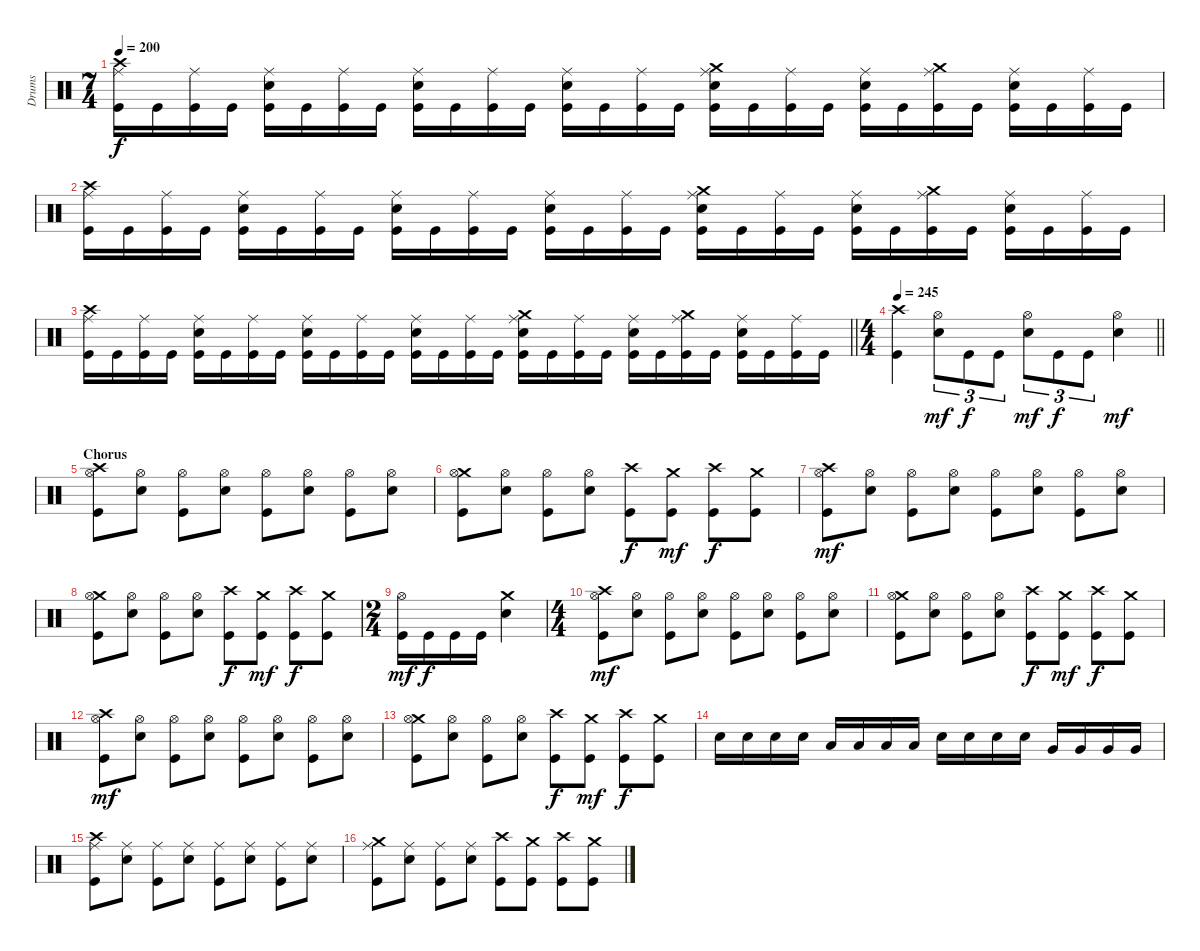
\track ("Drums" "Drums") {instrument percussion}
\staff {score}
\articulation defaults
\ts (7 4)
\tempo 200
\clef neutral
\ks c
("Crash high (hit)" "Ride (middle)" "Kick (hit)").16{dy f} "Kick (hit)".16 ("Ride (middle)" "Kick (hit)").16 "Kick (hit)".16 ("Ride (middle)" "Electric Snare (hit)" "Kick (hit)").16 "Kick (hit)".16 ("Ride (middle)" "Kick (hit)").16 "Kick (hit)".16 ("Ride (middle)" "Electric Snare (hit)" "Kick (hit)").16 "Kick (hit)".16 ("Ride (middle)" "Kick (hit)").16 "Kick (hit)".16 ("Ride (middle)" "Electric Snare (hit)" "Kick (hit)").16 "Kick (hit)".16 ("Ride (middle)" "Kick (hit)").16 "Kick (hit)".16 ("Crash medium (hit)" "Ride (middle)" "Electric Snare (hit)" "Kick (hit)").16 "Kick (hit)".16 ("Ride (middle)" "Kick (hit)").16 "Kick (hit)".16 ("Ride (middle)" "Electric Snare (hit)" "Kick (hit)").16 "Kick (hit)".16 ("Crash medium (hit)" "Ride (middle)" "Kick (hit)").16 "Kick (hit)".16 ("Ride (middle)" "Electric Snare (hit)" "Kick (hit)").16 "Kick (hit)".16 ("Ride (middle)" "Kick (hit)").16 "Kick (hit)".16 |
("Crash high (hit)" "Ride (middle)" "Kick (hit)").16 "Kick (hit)".16 ("Ride (middle)" "Kick (hit)").16 "Kick (hit)".16 ("Ride (middle)" "Electric Snare (hit)" "Kick (hit)").16 "Kick (hit)".16 ("Ride (middle)" "Kick (hit)").16 "Kick (hit)".16 ("Ride (middle)" "Electric Snare (hit)" "Kick (hit)").16 "Kick (hit)".16 ("Ride (middle)" "Kick (hit)").16 "Kick (hit)".16 ("Ride (middle)" "Electric Snare (hit)" "Kick (hit)").16 "Kick (hit)".16 ("Ride (middle)" "Kick (hit)").16 "Kick (hit)".16 ("Crash medium (hit)" "Ride (middle)" "Electric Snare (hit)" "Kick (hit)").16 "Kick (hit)".16 ("Ride (middle)" "Kick (hit)").16 "Kick (hit)".16 ("Ride (middle)" "Electric Snare (hit)" "Kick (hit)").16 "Kick (hit)".16 ("Crash medium (hit)" "Ride (middle)" "Kick (hit)").16 "Kick (hit)".16 ("Ride (middle)" "Electric Snare (hit)" "Kick (hit)").16 "Kick (hit)".16 ("Ride (middle)" "Kick (hit)").16 "Kick (hit)".16 |
\barLineRight lightlight
("Crash high (hit)" "Ride (middle)" "Kick (hit)").16 "Kick (hit)".16 ("Ride (middle)" "Kick (hit)").16 "Kick (hit)".16 ("Ride (middle)" "Electric Snare (hit)" "Kick (hit)").16 "Kick (hit)".16 ("Ride (middle)" "Kick (hit)").16 "Kick (hit)".16 ("Ride (middle)" "Electric Snare (hit)" "Kick (hit)").16 "Kick (hit)".16 ("Ride (middle)" "Kick (hit)").16 "Kick (hit)".16 ("Ride (middle)" "Electric Snare (hit)" "Kick (hit)").16 "Kick (hit)".16 ("Ride (middle)" "Kick (hit)").16 "Kick (hit)".16 ("Crash medium (hit)" "Ride (middle)" "Electric Snare (hit)" "Kick (hit)").16 "Kick (hit)".16 ("Ride (middle)" "Kick (hit)").16 "Kick (hit)".16 ("Ride (middle)" "Electric Snare (hit)" "Kick (hit)").16 "Kick (hit)".16 ("Crash medium (hit)" "Ride (middle)" "Kick (hit)").16 "Kick (hit)".16 ("Ride (middle)" "Electric Snare (hit)" "Kick (hit)").16 "Kick (hit)".16 ("Ride (middle)" "Kick (hit)").16 "Kick (hit)".16 |
\ts (4 4)
\section ("" "")
\tempo 245
\barLineRight lightlight
("Crash high (hit)" "Kick (hit)").4 ("Hi-Hat (open)" "Electric Snare (hit)").8{tu (3 2) dy mf} "Kick (hit)".8{tu (3 2) dy f} "Kick (hit)".8{tu (3 2)} ("Hi-Hat (open)" "Electric Snare (hit)").8{tu (3 2) dy mf} "Kick (hit)".8{tu (3 2) dy f} "Kick (hit)".8{tu (3 2)} ("Hi-Hat (open)" "Electric Snare (hit)").4{dy mf} |
\section ("" "Chorus")
("Crash high (hit)" "Hi-Hat (open)" "Kick (hit)").8 ("Hi-Hat (open)" "Electric Snare (hit)").8 ("Hi-Hat (open)" "Kick (hit)").8 ("Hi-Hat (open)" "Electric Snare (hit)").8 ("Hi-Hat (open)" "Kick (hit)").8 ("Hi-Hat (open)" "Electric Snare (hit)").8 ("Hi-Hat (open)" "Kick (hit)").8 ("Hi-Hat (open)" "Electric Snare (hit)").8 |
("Crash medium (hit)" "Hi-Hat (open)" "Kick (hit)").8 ("Hi-Hat (open)" "Electric Snare (hit)").8 ("Hi-Hat (open)" "Kick (hit)").8 ("Hi-Hat (open)" "Electric Snare (hit)").8 ("Crash high (hit)" "Kick (hit)").8{dy f} ("Crash medium (hit)" "Kick (hit)").8{dy mf} ("Crash high (hit)" "Kick (hit)").8{dy f} ("Crash medium (hit)" "Kick (hit)").8 |
("Crash high (hit)" "Hi-Hat (open)" "Kick (hit)").8{dy mf} ("Hi-Hat (open)" "Electric Snare (hit)").8 ("Hi-Hat (open)" "Kick (hit)").8 ("Hi-Hat (open)" "Electric Snare (hit)").8 ("Hi-Hat (open)" "Kick (hit)").8 ("Hi-Hat (open)" "Electric Snare (hit)").8 ("Hi-Hat (open)" "Kick (hit)").8 ("Hi-Hat (open)" "Electric Snare (hit)").8 |
("Crash medium (hit)" "Hi-Hat (open)" "Kick (hit)").8 ("Hi-Hat (open)" "Electric Snare (hit)").8 ("Hi-Hat (open)" "Kick (hit)").8 ("Hi-Hat (open)" "Electric Snare (hit)").8 ("Crash high (hit)" "Kick (hit)").8{dy f} ("Crash medium (hit)" "Kick (hit)").8{dy mf} ("Crash high (hit)" "Kick (hit)").8{dy f} ("Crash medium (hit)" "Kick (hit)").8 |
\ts (2 4)
("Hi-Hat (open)" "Kick (hit)").16{dy mf} "Kick (hit)".16{dy f} "Kick (hit)".16 "Kick (hit)".16 ("Crash medium (hit)" "Electric Snare (hit)").4 |
\ts (4 4)
("Crash high (hit)" "Hi-Hat (open)" "Kick (hit)").8{dy mf} ("Hi-Hat (open)" "Electric Snare (hit)").8 ("Hi-Hat (open)" "Kick (hit)").8 ("Hi-Hat (open)" "Electric Snare (hit)").8 ("Hi-Hat (open)" "Kick (hit)").8 ("Hi-Hat (open)" "Electric Snare (hit)").8 ("Hi-Hat (open)" "Kick (hit)").8 ("Hi-Hat (open)" "Electric Snare (hit)").8 |
("Crash medium (hit)" "Hi-Hat (open)" "Kick (hit)").8 ("Hi-Hat (open)" "Electric Snare (hit)").8 ("Hi-Hat (open)" "Kick (hit)").8 ("Hi-Hat (open)" "Electric Snare (hit)").8 ("Crash high (hit)" "Kick (hit)").8{dy f} ("Crash medium (hit)" "Kick (hit)").8{dy mf} ("Crash high (hit)" "Kick (hit)").8{dy f} ("Crash medium (hit)" "Kick (hit)").8 |
("Crash high (hit)" "Hi-Hat (open)" "Kick (hit)").8{dy mf} ("Hi-Hat (open)" "Electric Snare (hit)").8 ("Hi-Hat (open)" "Kick (hit)").8 ("Hi-Hat (open)" "Electric Snare (hit)").8 ("Hi-Hat (open)" "Kick (hit)").8 ("Hi-Hat (open)" "Electric Snare (hit)").8 ("Hi-Hat (open)" "Kick (hit)").8 ("Hi-Hat (open)" "Electric Snare (hit)").8 |
("Crash medium (hit)" "Hi-Hat (open)" "Kick (hit)").8 ("Hi-Hat (open)" "Electric Snare (hit)").8 ("Hi-Hat (open)" "Kick (hit)").8 ("Hi-Hat (open)" "Electric Snare (hit)").8 ("Crash high (hit)" "Kick (hit)").8{dy f} ("Crash medium (hit)" "Kick (hit)").8{dy mf} ("Crash high (hit)" "Kick (hit)").8{dy f} ("Crash medium (hit)" "Kick (hit)").8 |
"Electric Snare (hit)".16 "Electric Snare (hit)".16 "Electric Snare (hit)".16 "Electric Snare (hit)".16 "Low Tom (hit)".16 "Low Tom (hit)".16 "Low Tom (hit)".16 "Low Tom (hit)".16 "Electric Snare (hit)".16 "Electric Snare (hit)".16 "Electric Snare (hit)".16 "Electric Snare (hit)".16 "Very Low Tom (hit)".16 "Very Low Tom (hit)".16 "Very Low Tom (hit)".16 "Very Low Tom (hit)".16 |
("Crash high (hit)" "Ride (middle)" "Kick (hit)").8 ("Ride (middle)" "Electric Snare (hit)").8 ("Ride (middle)" "Kick (hit)").8 ("Ride (middle)" "Electric Snare (hit)").8 ("Ride (middle)" "Kick (hit)").8 ("Ride (middle)" "Electric Snare (hit)").8 ("Ride (middle)" "Kick (hit)").8 ("Ride (middle)" "Electric Snare (hit)").8 |
("Crash medium (hit)" "Ride (middle)" "Kick (hit)").8 ("Ride (middle)" "Electric Snare (hit)").8 ("Ride (middle)" "Kick (hit)").8 ("Ride (middle)" "Electric Snare (hit)").8 ("Crash high (hit)" "Kick (hit)").8 ("Crash medium (hit)" "Kick (hit)").8 ("Crash high (hit)" "Kick (hit)").8 ("Crash medium (hit)" "Kick (hit)").8
